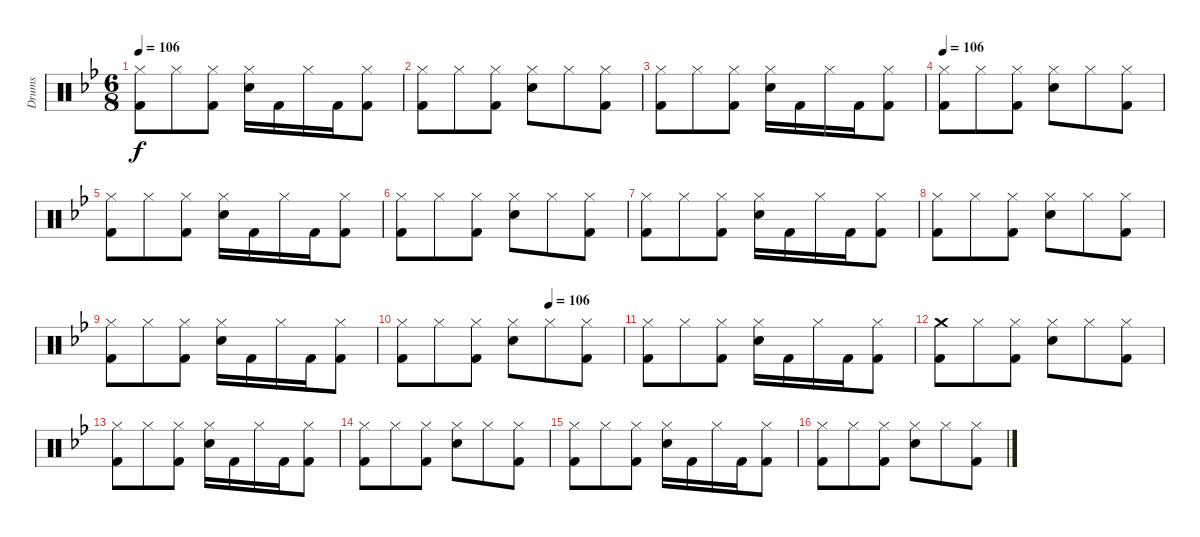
\track ("Drums" "Drums") {instrument percussion}
\staff {score}
\articulation defaults
\ts (6 8)
\tempo 106
\clef neutral
\ks bb
("Hi-Hat (closed)" "Kick (hit) 2").8{dy f} "Hi-Hat (closed)".8 ("Hi-Hat (closed)" "Kick (hit) 2").8 ("Hi-Hat (closed)" "Snare (hit) 2").16 "Kick (hit) 2".16 "Hi-Hat (closed)".16 "Kick (hit) 2".16 ("Hi-Hat (closed)" "Kick (hit) 2").8 |
("Hi-Hat (closed)" "Kick (hit) 2").8 "Hi-Hat (closed)".8 ("Hi-Hat (closed)" "Kick (hit) 2").8 ("Hi-Hat (closed)" "Snare (hit) 2").8 "Hi-Hat (closed)".8 ("Hi-Hat (closed)" "Kick (hit) 2").8 |
("Hi-Hat (closed)" "Kick (hit) 2").8 "Hi-Hat (closed)".8 ("Hi-Hat (closed)" "Kick (hit) 2").8 ("Hi-Hat (closed)" "Snare (hit) 2").16 "Kick (hit) 2".16 "Hi-Hat (closed)".16 "Kick (hit) 2".16 ("Hi-Hat (closed)" "Kick (hit) 2").8 |
\tempo 106
("Hi-Hat (closed)" "Kick (hit) 2").8 "Hi-Hat (closed)".8 ("Hi-Hat (closed)" "Kick (hit) 2").8 ("Hi-Hat (closed)" "Snare (hit) 2").8 "Hi-Hat (closed)".8 ("Hi-Hat (closed)" "Kick (hit) 2").8 |
("Hi-Hat (closed)" "Kick (hit) 2").8 "Hi-Hat (closed)".8 ("Hi-Hat (closed)" "Kick (hit) 2").8 ("Hi-Hat (closed)" "Snare (hit) 2").16 "Kick (hit) 2".16 "Hi-Hat (closed)".16 "Kick (hit) 2".16 ("Hi-Hat (closed)" "Kick (hit) 2").8 |
("Hi-Hat (closed)" "Kick (hit) 2").8 "Hi-Hat (closed)".8 ("Hi-Hat (closed)" "Kick (hit) 2").8 ("Hi-Hat (closed)" "Snare (hit) 2").8 "Hi-Hat (closed)".8 ("Hi-Hat (closed)" "Kick (hit) 2").8 |
("Hi-Hat (closed)" "Kick (hit) 2").8 "Hi-Hat (closed)".8 ("Hi-Hat (closed)" "Kick (hit) 2").8 ("Hi-Hat (closed)" "Snare (hit) 2").16 "Kick (hit) 2".16 "Hi-Hat (closed)".16 "Kick (hit) 2".16 ("Hi-Hat (closed)" "Kick (hit) 2").8 |
("Hi-Hat (closed)" "Kick (hit) 2").8 "Hi-Hat (closed)".8 ("Hi-Hat (closed)" "Kick (hit) 2").8 ("Hi-Hat (closed)" "Snare (hit) 2").8 "Hi-Hat (closed)".8 ("Hi-Hat (closed)" "Kick (hit) 2").8 |
("Hi-Hat (closed)" "Kick (hit) 2").8 "Hi-Hat (closed)".8 ("Hi-Hat (closed)" "Kick (hit) 2").8 ("Hi-Hat (closed)" "Snare (hit) 2").16 "Kick (hit) 2".16 "Hi-Hat (closed)".16 "Kick (hit) 2".16 ("Hi-Hat (closed)" "Kick (hit) 2").8 |
\tempo (106 0.6666666666666666)
("Hi-Hat (closed)" "Kick (hit) 2").8 "Hi-Hat (closed)".8 ("Hi-Hat (closed)" "Kick (hit) 2").8 ("Hi-Hat (closed)" "Snare (hit) 2").8 "Hi-Hat (closed)".8 ("Hi-Hat (closed)" "Kick (hit) 2").8 |
("Hi-Hat (closed)" "Kick (hit) 2").8 "Hi-Hat (closed)".8 ("Hi-Hat (closed)" "Kick (hit) 2").8 ("Hi-Hat (closed)" "Snare (hit) 2").16 "Kick (hit) 2".16 "Hi-Hat (closed)".16 "Kick (hit) 2".16 ("Hi-Hat (closed)" "Kick (hit) 2").8 |
("Crash medium (hit)" "Kick (hit) 2").8 "Hi-Hat (closed)".8 ("Hi-Hat (closed)" "Kick (hit) 2").8 ("Hi-Hat (closed)" "Snare (hit) 2").8 "Hi-Hat (closed)".8 ("Hi-Hat (closed)" "Kick (hit) 2").8 |
("Hi-Hat (closed)" "Kick (hit) 2").8 "Hi-Hat (closed)".8 ("Hi-Hat (closed)" "Kick (hit) 2").8 ("Hi-Hat (closed)" "Snare (hit) 2").16 "Kick (hit) 2".16 "Hi-Hat (closed)".16 "Kick (hit) 2".16 ("Hi-Hat (closed)" "Kick (hit) 2").8 |
("Hi-Hat (closed)" "Kick (hit) 2").8 "Hi-Hat (closed)".8 ("Hi-Hat (closed)" "Kick (hit) 2").8 ("Hi-Hat (closed)" "Snare (hit) 2").8 "Hi-Hat (closed)".8 ("Hi-Hat (closed)" "Kick (hit) 2").8 |
("Hi-Hat (closed)" "Kick (hit) 2").8 "Hi-Hat (closed)".8 ("Hi-Hat (closed)" "Kick (hit) 2").8 ("Hi-Hat (closed)" "Snare (hit) 2").16 "Kick (hit) 2".16 "Hi-Hat (closed)".16 "Kick (hit) 2".16 ("Hi-Hat (closed)" "Kick (hit) 2").8 |
("Hi-Hat (closed)" "Kick (hit) 2").8 "Hi-Hat (closed)".8 ("Hi-Hat (closed)" "Kick (hit) 2").8 ("Hi-Hat (closed)" "Snare (hit) 2").8 "Hi-Hat (closed)".8 ("Hi-Hat (closed)" "Kick (hit) 2").8
